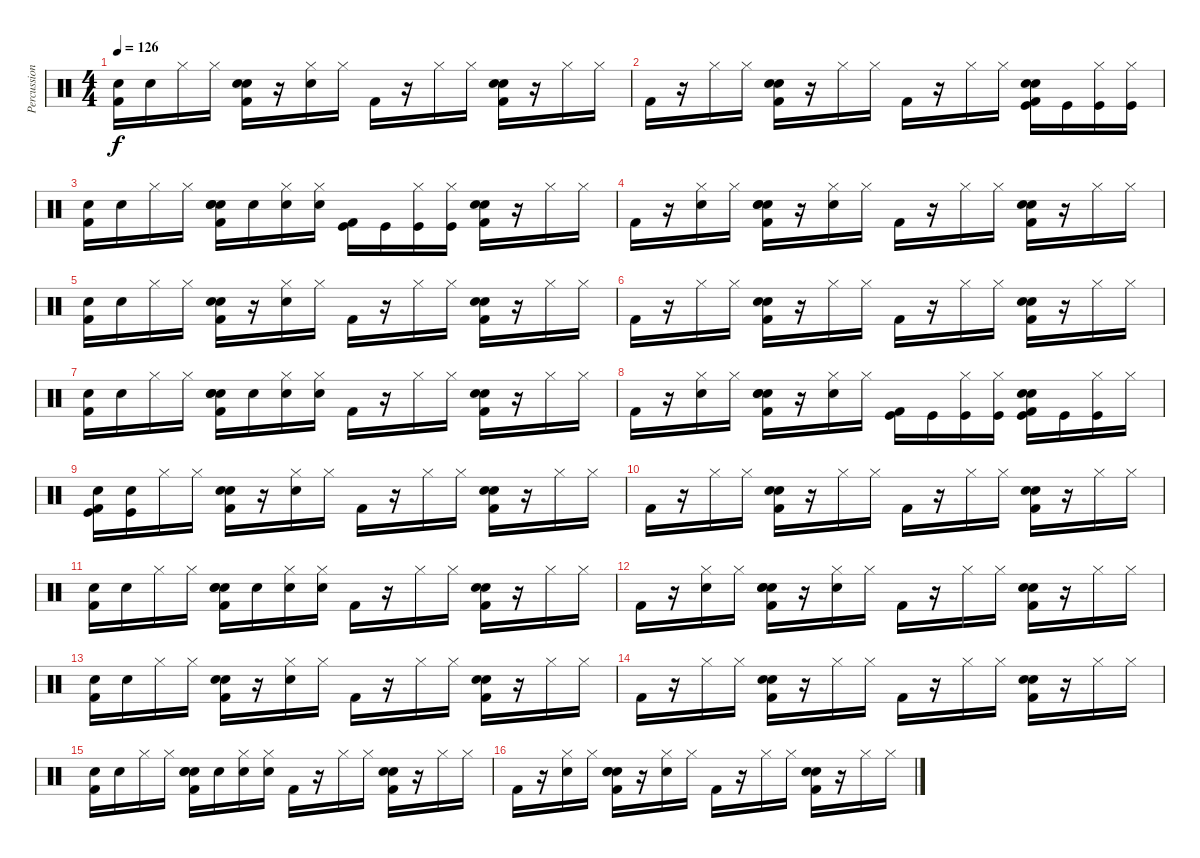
\track ("Percussion" "Percussion") {instrument percussion}
\staff {score}
\articulation defaults
\ts (4 4)
\tempo 126
\clef neutral
\ks c
("Snare (hit) 2" "Kick (hit) 2").16{dy f} "Snare (hit) 2".16 "Hi-Hat (closed)".16 "Hi-Hat (closed)".16 ("Hand Clap (hit)" "Electric Snare (hit)" "Kick (hit) 2").16 r.16 ("Hi-Hat (closed)" "Snare (hit) 2").16 "Hi-Hat (closed)".16 "Kick (hit) 2".16 r.16 "Hi-Hat (closed)".16 "Hi-Hat (closed)".16 ("Hand Clap (hit)" "Electric Snare (hit)" "Kick (hit) 2").16 r.16 "Hi-Hat (closed)".16 "Hi-Hat (closed)".16 |
"Kick (hit) 2".16 r.16 "Hi-Hat (closed)".16 "Hi-Hat (closed)".16 ("Hand Clap (hit)" "Electric Snare (hit)" "Kick (hit) 2").16 r.16 "Hi-Hat (closed)".16 "Hi-Hat (closed)".16 "Kick (hit) 2".16 r.16 "Hi-Hat (closed)".16 "Hi-Hat (closed)".16 ("Kick (hit)" "Hand Clap (hit)" "Electric Snare (hit)" "Kick (hit) 2").16 "Kick (hit)".16 ("Hi-Hat (closed)" "Kick (hit)").16 ("Hi-Hat (closed)" "Kick (hit)").16 |
("Snare (hit) 2" "Kick (hit) 2").16 "Snare (hit) 2".16 "Hi-Hat (closed)".16 "Hi-Hat (closed)".16 ("Snare (hit) 2" "Hand Clap (hit)" "Electric Snare (hit)" "Kick (hit) 2").16 "Snare (hit) 2".16 ("Hi-Hat (closed)" "Snare (hit) 2").16 ("Hi-Hat (closed)" "Snare (hit) 2").16 ("Kick (hit)" "Kick (hit) 2").16 "Kick (hit)".16 ("Hi-Hat (closed)" "Kick (hit)").16 ("Hi-Hat (closed)" "Kick (hit)").16 ("Hand Clap (hit)" "Electric Snare (hit)" "Kick (hit) 2").16 r.16 "Hi-Hat (closed)".16 "Hi-Hat (closed)".16 |
"Kick (hit) 2".16 r.16 ("Hi-Hat (closed)" "Snare (hit) 2").16 "Hi-Hat (closed)".16 ("Snare (hit) 2" "Hand Clap (hit)" "Electric Snare (hit)" "Kick (hit) 2").16 r.16 ("Hi-Hat (closed)" "Snare (hit) 2").16 "Hi-Hat (closed)".16 "Kick (hit) 2".16 r.16 "Hi-Hat (closed)".16 "Hi-Hat (closed)".16 ("Hand Clap (hit)" "Electric Snare (hit)" "Kick (hit) 2").16 r.16 "Hi-Hat (closed)".16 "Hi-Hat (closed)".16 |
("Snare (hit) 2" "Kick (hit) 2").16 "Snare (hit) 2".16 "Hi-Hat (closed)".16 "Hi-Hat (closed)".16 ("Hand Clap (hit)" "Electric Snare (hit)" "Kick (hit) 2").16 r.16 ("Hi-Hat (closed)" "Snare (hit) 2").16 "Hi-Hat (closed)".16 "Kick (hit) 2".16 r.16 "Hi-Hat (closed)".16 "Hi-Hat (closed)".16 ("Hand Clap (hit)" "Electric Snare (hit)" "Kick (hit) 2").16 r.16 "Hi-Hat (closed)".16 "Hi-Hat (closed)".16 |
"Kick (hit) 2".16 r.16 "Hi-Hat (closed)".16 "Hi-Hat (closed)".16 ("Hand Clap (hit)" "Electric Snare (hit)" "Kick (hit) 2").16 r.16 "Hi-Hat (closed)".16 "Hi-Hat (closed)".16 "Kick (hit) 2".16 r.16 "Hi-Hat (closed)".16 "Hi-Hat (closed)".16 ("Hand Clap (hit)" "Electric Snare (hit)" "Kick (hit) 2").16 r.16 "Hi-Hat (closed)".16 "Hi-Hat (closed)".16 |
("Snare (hit) 2" "Kick (hit) 2").16 "Snare (hit) 2".16 "Hi-Hat (closed)".16 "Hi-Hat (closed)".16 ("Snare (hit) 2" "Hand Clap (hit)" "Electric Snare (hit)" "Kick (hit) 2").16 "Snare (hit) 2".16 ("Hi-Hat (closed)" "Snare (hit) 2").16 ("Hi-Hat (closed)" "Snare (hit) 2").16 "Kick (hit) 2".16 r.16 "Hi-Hat (closed)".16 "Hi-Hat (closed)".16 ("Hand Clap (hit)" "Electric Snare (hit)" "Kick (hit) 2").16 r.16 "Hi-Hat (closed)".16 "Hi-Hat (closed)".16 |
"Kick (hit) 2".16 r.16 ("Hi-Hat (closed)" "Snare (hit) 2").16 "Hi-Hat (closed)".16 ("Snare (hit) 2" "Hand Clap (hit)" "Electric Snare (hit)" "Kick (hit) 2").16 r.16 ("Hi-Hat (closed)" "Snare (hit) 2").16 "Hi-Hat (closed)".16 ("Kick (hit)" "Kick (hit) 2").16 "Kick (hit)".16 ("Hi-Hat (closed)" "Kick (hit)").16 ("Hi-Hat (closed)" "Kick (hit)").16 ("Kick (hit)" "Hand Clap (hit)" "Electric Snare (hit)" "Kick (hit) 2").16 "Kick (hit)".16 ("Hi-Hat (closed)" "Kick (hit)").16 "Hi-Hat (closed)".16 |
("Kick (hit)" "Snare (hit) 2" "Kick (hit) 2").16 ("Kick (hit)" "Snare (hit) 2").16 "Hi-Hat (closed)".16 "Hi-Hat (closed)".16 ("Hand Clap (hit)" "Electric Snare (hit)" "Kick (hit) 2").16 r.16 ("Hi-Hat (closed)" "Snare (hit) 2").16 "Hi-Hat (closed)".16 "Kick (hit) 2".16 r.16 "Hi-Hat (closed)".16 "Hi-Hat (closed)".16 ("Hand Clap (hit)" "Electric Snare (hit)" "Kick (hit) 2").16 r.16 "Hi-Hat (closed)".16 "Hi-Hat (closed)".16 |
"Kick (hit) 2".16 r.16 "Hi-Hat (closed)".16 "Hi-Hat (closed)".16 ("Hand Clap (hit)" "Electric Snare (hit)" "Kick (hit) 2").16 r.16 "Hi-Hat (closed)".16 "Hi-Hat (closed)".16 "Kick (hit) 2".16 r.16 "Hi-Hat (closed)".16 "Hi-Hat (closed)".16 ("Hand Clap (hit)" "Electric Snare (hit)" "Kick (hit) 2").16 r.16 "Hi-Hat (closed)".16 "Hi-Hat (closed)".16 |
("Snare (hit) 2" "Kick (hit) 2").16 "Snare (hit) 2".16 "Hi-Hat (closed)".16 "Hi-Hat (closed)".16 ("Snare (hit) 2" "Hand Clap (hit)" "Electric Snare (hit)" "Kick (hit) 2").16 "Snare (hit) 2".16 ("Hi-Hat (closed)" "Snare (hit) 2").16 ("Hi-Hat (closed)" "Snare (hit) 2").16 "Kick (hit) 2".16 r.16 "Hi-Hat (closed)".16 "Hi-Hat (closed)".16 ("Hand Clap (hit)" "Electric Snare (hit)" "Kick (hit) 2").16 r.16 "Hi-Hat (closed)".16 "Hi-Hat (closed)".16 |
"Kick (hit) 2".16 r.16 ("Hi-Hat (closed)" "Snare (hit) 2").16 "Hi-Hat (closed)".16 ("Snare (hit) 2" "Hand Clap (hit)" "Electric Snare (hit)" "Kick (hit) 2").16 r.16 ("Hi-Hat (closed)" "Snare (hit) 2").16 "Hi-Hat (closed)".16 "Kick (hit) 2".16 r.16 "Hi-Hat (closed)".16 "Hi-Hat (closed)".16 ("Hand Clap (hit)" "Electric Snare (hit)" "Kick (hit) 2").16 r.16 "Hi-Hat (closed)".16 "Hi-Hat (closed)".16 |
("Snare (hit) 2" "Kick (hit) 2").16 "Snare (hit) 2".16 "Hi-Hat (closed)".16 "Hi-Hat (closed)".16 ("Hand Clap (hit)" "Electric Snare (hit)" "Kick (hit) 2").16 r.16 ("Hi-Hat (closed)" "Snare (hit) 2").16 "Hi-Hat (closed)".16 "Kick (hit) 2".16 r.16 "Hi-Hat (closed)".16 "Hi-Hat (closed)".16 ("Hand Clap (hit)" "Electric Snare (hit)" "Kick (hit) 2").16 r.16 "Hi-Hat (closed)".16 "Hi-Hat (closed)".16 |
"Kick (hit) 2".16 r.16 "Hi-Hat (closed)".16 "Hi-Hat (closed)".16 ("Hand Clap (hit)" "Electric Snare (hit)" "Kick (hit) 2").16 r.16 "Hi-Hat (closed)".16 "Hi-Hat (closed)".16 "Kick (hit) 2".16 r.16 "Hi-Hat (closed)".16 "Hi-Hat (closed)".16 ("Hand Clap (hit)" "Electric Snare (hit)" "Kick (hit) 2").16 r.16 "Hi-Hat (closed)".16 "Hi-Hat (closed)".16 |
("Snare (hit) 2" "Kick (hit) 2").16 "Snare (hit) 2".16 "Hi-Hat (closed)".16 "Hi-Hat (closed)".16 ("Snare (hit) 2" "Hand Clap (hit)" "Electric Snare (hit)" "Kick (hit) 2").16 "Snare (hit) 2".16 ("Hi-Hat (closed)" "Snare (hit) 2").16 ("Hi-Hat (closed)" "Snare (hit) 2").16 "Kick (hit) 2".16 r.16 "Hi-Hat (closed)".16 "Hi-Hat (closed)".16 ("Hand Clap (hit)" "Electric Snare (hit)" "Kick (hit) 2").16 r.16 "Hi-Hat (closed)".16 "Hi-Hat (closed)".16 |
"Kick (hit) 2".16 r.16 ("Hi-Hat (closed)" "Snare (hit) 2").16 "Hi-Hat (closed)".16 ("Snare (hit) 2" "Hand Clap (hit)" "Electric Snare (hit)" "Kick (hit) 2").16 r.16 ("Hi-Hat (closed)" "Snare (hit) 2").16 "Hi-Hat (closed)".16 "Kick (hit) 2".16 r.16 "Hi-Hat (closed)".16 "Hi-Hat (closed)".16 ("Hand Clap (hit)" "Electric Snare (hit)" "Kick (hit) 2").16 r.16 "Hi-Hat (closed)".16 "Hi-Hat (closed)".16
